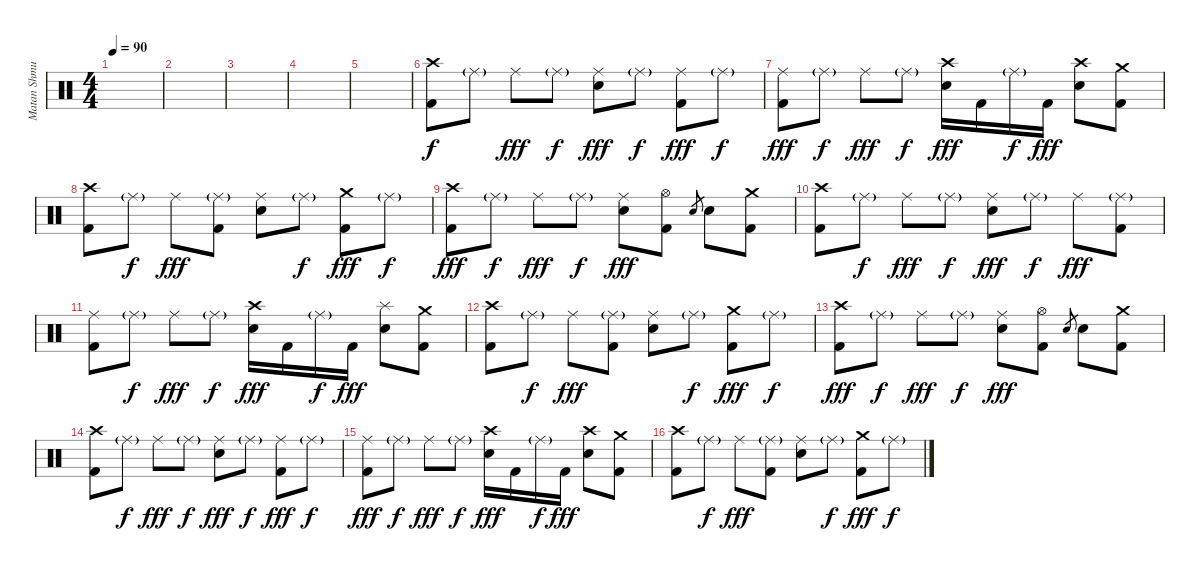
\track ("Matan Shmuely " "Matan Shmu") {instrument percussion}
\staff {score}
\articulation defaults
\ts (4 4)
\tempo 90
\clef neutral
\ks c
|
|
|
|
|
("Kick (hit) 2" "Crash high (hit)").8 "Ride (middle)"{g}.8{dy f} "Ride (middle)".8{dy fff} "Ride (middle)"{g}.8{dy f} ("Electric Snare (hit)" "Ride (middle)").8{dy fff} "Ride (middle)"{g}.8{dy f} ("Kick (hit) 2" "Ride (middle)").8{dy fff} "Ride (middle)"{g}.8{dy f} |
("Kick (hit) 2" "Ride (middle)").8{dy fff} "Ride (middle)"{g}.8{dy f} "Ride (middle)".8{dy fff} "Ride (middle)"{g}.8{dy f} ("Electric Snare (hit)" "Crash high (hit)").16{dy fff} "Kick (hit) 2".16 "Ride (middle)"{g}.16{dy f} "Kick (hit) 2".16{dy fff} ("Electric Snare (hit)" "Crash high (hit)").8 ("Kick (hit) 2" "Crash medium (hit)").8 |
("Kick (hit) 2" "Crash high (hit)").8 "Ride (middle)"{g}.8{dy f} "Ride (middle)".8{dy fff} ("Kick (hit) 2" "Ride (middle)"{g}).8 ("Electric Snare (hit)" "Ride (middle)").8 "Ride (middle)"{g}.8{dy f} ("Kick (hit) 2" "Crash medium (hit)").8{dy fff} "Ride (middle)"{g}.8{dy f} |
("Kick (hit) 2" "Crash high (hit)").8{dy fff} "Ride (middle)"{g}.8{dy f} "Ride (middle)".8{dy fff} "Ride (middle)"{g}.8{dy f} ("Electric Snare (hit)" "Ride (middle)").8{dy fff} ("Kick (hit) 2" "Hi-Hat (open)").8 "Electric Snare (hit)".8{gr} "Electric Snare (hit)".8 ("Kick (hit) 2" "Crash medium (hit)").8 |
("Kick (hit) 2" "Crash high (hit)").8 "Ride (middle)"{g}.8{dy f} "Ride (middle)".8{dy fff} "Ride (middle)"{g}.8{dy f} ("Electric Snare (hit)" "Ride (middle)").8{dy fff} "Ride (middle)"{g}.8{dy f} "Ride (middle)".8{dy fff} ("Kick (hit) 2" "Ride (middle)"{g}).8 |
("Kick (hit) 2" "Ride (middle)").8 "Ride (middle)"{g}.8{dy f} "Ride (middle)".8{dy fff} "Ride (middle)"{g}.8{dy f} ("Electric Snare (hit)" "Crash high (hit)").16{dy fff} "Kick (hit) 2".16 "Ride (middle)"{g}.16{dy f} "Kick (hit) 2".16{dy fff} ("Electric Snare (hit)" "Splash (hit)").8 ("Kick (hit) 2" "Crash medium (hit)").8 |
("Kick (hit) 2" "Crash high (hit)").8 "Ride (middle)"{g}.8{dy f} "Ride (middle)".8{dy fff} ("Kick (hit) 2" "Ride (middle)"{g}).8 ("Electric Snare (hit)" "Ride (middle)").8 "Ride (middle)"{g}.8{dy f} ("Kick (hit) 2" "Crash medium (hit)").8{dy fff} "Ride (middle)"{g}.8{dy f} |
("Kick (hit) 2" "Crash high (hit)").8{dy fff} "Ride (middle)"{g}.8{dy f} "Ride (middle)".8{dy fff} "Ride (middle)"{g}.8{dy f} ("Electric Snare (hit)" "Ride (middle)").8{dy fff} ("Kick (hit) 2" "Hi-Hat (open)").8 "Electric Snare (hit)".8{gr} "Electric Snare (hit)".8 ("Kick (hit) 2" "Crash medium (hit)").8 |
("Kick (hit) 2" "Crash high (hit)").8 "Ride (middle)"{g}.8{dy f} "Ride (middle)".8{dy fff} "Ride (middle)"{g}.8{dy f} ("Electric Snare (hit)" "Ride (middle)").8{dy fff} "Ride (middle)"{g}.8{dy f} ("Kick (hit) 2" "Ride (middle)").8{dy fff} "Ride (middle)"{g}.8{dy f} |
("Kick (hit) 2" "Ride (middle)").8{dy fff} "Ride (middle)"{g}.8{dy f} "Ride (middle)".8{dy fff} "Ride (middle)"{g}.8{dy f} ("Electric Snare (hit)" "Crash high (hit)").16{dy fff} "Kick (hit) 2".16 "Ride (middle)"{g}.16{dy f} "Kick (hit) 2".16{dy fff} ("Electric Snare (hit)" "Crash high (hit)").8 ("Kick (hit) 2" "Crash medium (hit)").8 |
("Kick (hit) 2" "Crash high (hit)").8 "Ride (middle)"{g}.8{dy f} "Ride (middle)".8{dy fff} ("Kick (hit) 2" "Ride (middle)"{g}).8 ("Electric Snare (hit)" "Ride (middle)").8 "Ride (middle)"{g}.8{dy f} ("Kick (hit) 2" "Crash medium (hit)").8{dy fff} "Ride (middle)"{g}.8{dy f}
